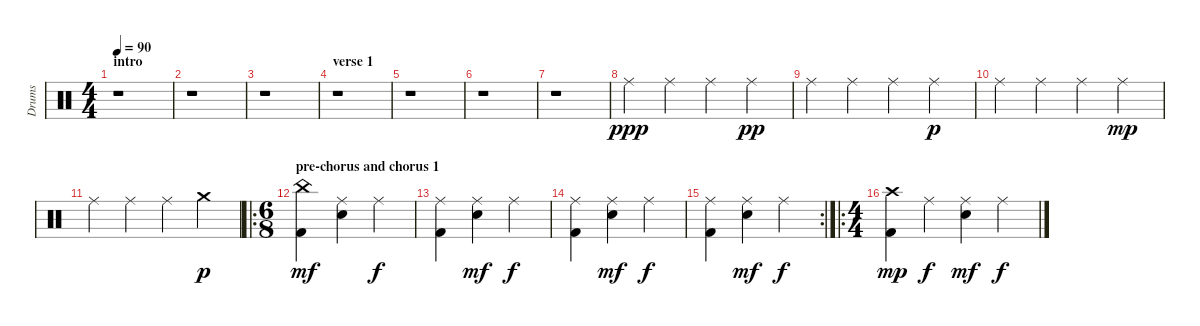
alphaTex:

\track ("Drums" "Drums") {instrument percussion}
\staff {score}
\articulation defaults
\ts (4 4)
\section ("" "intro")
\tempo 90
\clef neutral
\ks c
r.1{dy ppp} |
r.1 |
r.1 |
\section ("" "verse 1")
r.1 |
r.1 |
r.1 |
r.1 |
"Ride (middle)".4 "Ride (middle)".4 "Ride (middle)".4 "Ride (middle)".4{dy pp} |
"Ride (middle)".4 "Ride (middle)".4 "Ride (middle)".4 "Ride (middle)".4{dy p} |
"Ride (middle)".4 "Ride (middle)".4 "Ride (middle)".4 "Ride (middle)".4{dy mp} |
"Ride (middle)".4 "Ride (middle)".4 "Ride (middle)".4 "Crash medium (hit)".4{dy p} |
\ro
\ts (6 8)
\section ("" "pre-chorus and chorus 1")
("China (hit)" "Kick (hit) 2").4{dy mf} ("Ride (middle)" "Electric Snare (hit)").4 "Ride (middle)".4{dy f} |
("Ride (middle)" "Kick (hit) 2").4 ("Ride (middle)" "Electric Snare (hit)").4{dy mf} "Ride (middle)".4{dy f} |
("Ride (middle)" "Kick (hit) 2").4 ("Ride (middle)" "Electric Snare (hit)").4{dy mf} "Ride (middle)".4{dy f} |
\rc 2
("Ride (middle)" "Kick (hit) 2").4 ("Ride (middle)" "Electric Snare (hit)").4{dy mf} "Ride (middle)".4{dy f} |
\ro
\ts (4 4)
("Crash high (hit)" "Kick (hit) 2").4{dy mp} "Ride (middle)".4{dy f} ("Ride (middle)" "Electric Snare (hit)").4{dy mf} "Ride (middle)".4{dy f}
